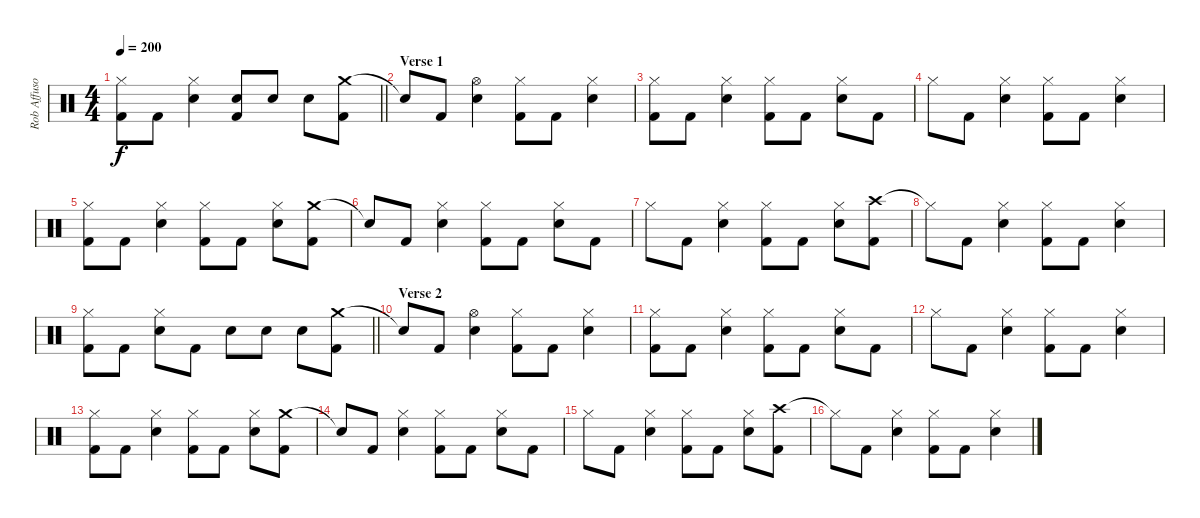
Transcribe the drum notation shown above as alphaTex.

\track ("Rob Affuso - Drums" "Rob Affuso") {instrument percussion}
\staff {score}
\articulation defaults
\ts (4 4)
\tempo 200
\clef neutral
\barLineRight lightlight
\ks c
("Hi-Hat (closed)" "Kick (hit) 2").8{dy f} "Kick (hit) 2".8 ("Hi-Hat (closed)" "Snare (hit) 2").4 ("Snare (hit) 2" "Kick (hit) 2").8 "Snare (hit) 2".8 "Snare (hit) 2".8 ("Crash medium (hit)" "Kick (hit) 2").8 |
\section ("" "Verse 1")
"Snare (hit)"{t}.8 "Kick (hit) 2".8 ("Hi-Hat (open)" "Snare (hit) 2").4 ("Hi-Hat (closed)" "Kick (hit) 2").8 "Kick (hit) 2".8 ("Hi-Hat (closed)" "Snare (hit) 2").4 |
("Hi-Hat (closed)" "Kick (hit) 2").8 "Kick (hit) 2".8 ("Hi-Hat (closed)" "Snare (hit) 2").4 ("Hi-Hat (closed)" "Kick (hit) 2").8 "Kick (hit) 2".8 ("Hi-Hat (closed)" "Snare (hit) 2").8 "Kick (hit) 2".8 |
"Hi-Hat (closed)".8 "Kick (hit) 2".8 ("Hi-Hat (closed)" "Snare (hit) 2").4 ("Hi-Hat (closed)" "Kick (hit) 2").8 "Kick (hit) 2".8 ("Hi-Hat (closed)" "Snare (hit) 2").4 |
("Hi-Hat (closed)" "Kick (hit) 2").8 "Kick (hit) 2".8 ("Hi-Hat (closed)" "Snare (hit) 2").4 ("Hi-Hat (closed)" "Kick (hit) 2").8 "Kick (hit) 2".8 ("Hi-Hat (closed)" "Snare (hit) 2").8 ("Crash medium (hit)" "Kick (hit) 2").8 |
"Snare (hit)"{t}.8 "Kick (hit) 2".8 ("Hi-Hat (closed)" "Snare (hit) 2").4 ("Hi-Hat (closed)" "Kick (hit) 2").8 "Kick (hit) 2".8 ("Hi-Hat (closed)" "Snare (hit) 2").8 "Kick (hit) 2".8 |
"Hi-Hat (closed)".8 "Kick (hit) 2".8 ("Hi-Hat (closed)" "Snare (hit) 2").4 ("Hi-Hat (closed)" "Kick (hit) 2").8 "Kick (hit) 2".8 ("Hi-Hat (closed)" "Snare (hit) 2").8 ("Crash high (hit)" "Kick (hit) 2").8 |
"Hi-Hat (closed)"{t}.8 "Kick (hit) 2".8 ("Hi-Hat (closed)" "Snare (hit) 2").4 ("Hi-Hat (closed)" "Kick (hit) 2").8 "Kick (hit) 2".8 ("Hi-Hat (closed)" "Snare (hit) 2").4 |
\barLineRight lightlight
("Hi-Hat (closed)" "Kick (hit) 2").8 "Kick (hit) 2".8 ("Hi-Hat (closed)" "Snare (hit) 2").8 "Kick (hit) 2".8 "Snare (hit) 2".8 "Snare (hit) 2".8 "Snare (hit) 2".8 ("Crash medium (hit)" "Kick (hit) 2").8 |
\section ("" "Verse 2")
"Snare (hit)"{t}.8 "Kick (hit) 2".8 ("Hi-Hat (open)" "Snare (hit) 2").4 ("Hi-Hat (closed)" "Kick (hit) 2").8 "Kick (hit) 2".8 ("Hi-Hat (closed)" "Snare (hit) 2").4 |
("Hi-Hat (closed)" "Kick (hit) 2").8 "Kick (hit) 2".8 ("Hi-Hat (closed)" "Snare (hit) 2").4 ("Hi-Hat (closed)" "Kick (hit) 2").8 "Kick (hit) 2".8 ("Hi-Hat (closed)" "Snare (hit) 2").8 "Kick (hit) 2".8 |
"Hi-Hat (closed)".8 "Kick (hit) 2".8 ("Hi-Hat (closed)" "Snare (hit) 2").4 ("Hi-Hat (closed)" "Kick (hit) 2").8 "Kick (hit) 2".8 ("Hi-Hat (closed)" "Snare (hit) 2").4 |
("Hi-Hat (closed)" "Kick (hit) 2").8 "Kick (hit) 2".8 ("Hi-Hat (closed)" "Snare (hit) 2").4 ("Hi-Hat (closed)" "Kick (hit) 2").8 "Kick (hit) 2".8 ("Hi-Hat (closed)" "Snare (hit) 2").8 ("Crash medium (hit)" "Kick (hit) 2").8 |
"Snare (hit)"{t}.8 "Kick (hit) 2".8 ("Hi-Hat (closed)" "Snare (hit) 2").4 ("Hi-Hat (closed)" "Kick (hit) 2").8 "Kick (hit) 2".8 ("Hi-Hat (closed)" "Snare (hit) 2").8 "Kick (hit) 2".8 |
"Hi-Hat (closed)".8 "Kick (hit) 2".8 ("Hi-Hat (closed)" "Snare (hit) 2").4 ("Hi-Hat (closed)" "Kick (hit) 2").8 "Kick (hit) 2".8 ("Hi-Hat (closed)" "Snare (hit) 2").8 ("Crash high (hit)" "Kick (hit) 2").8 |
"Hi-Hat (closed)"{t}.8 "Kick (hit) 2".8 ("Hi-Hat (closed)" "Snare (hit) 2").4 ("Hi-Hat (closed)" "Kick (hit) 2").8 "Kick (hit) 2".8 ("Hi-Hat (closed)" "Snare (hit) 2").4
